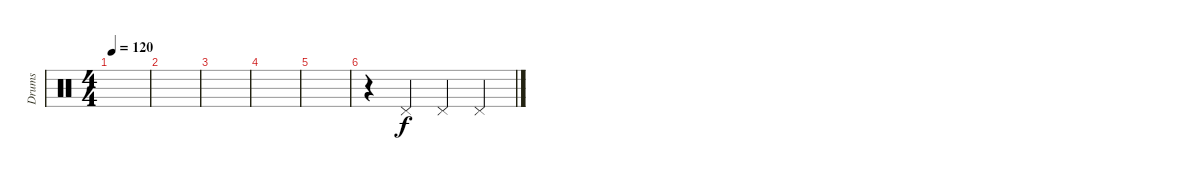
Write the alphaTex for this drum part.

\track ("Drums" "Drums") {instrument percussion}
\staff {score}
\articulation defaults
\ts (4 4)
\tempo 120
\clef neutral
\ks c
|
|
|
|
|
r.4 "Pedal Hi-Hat (hit)".4{dy f} "Pedal Hi-Hat (hit)".4 "Pedal Hi-Hat (hit)".4
